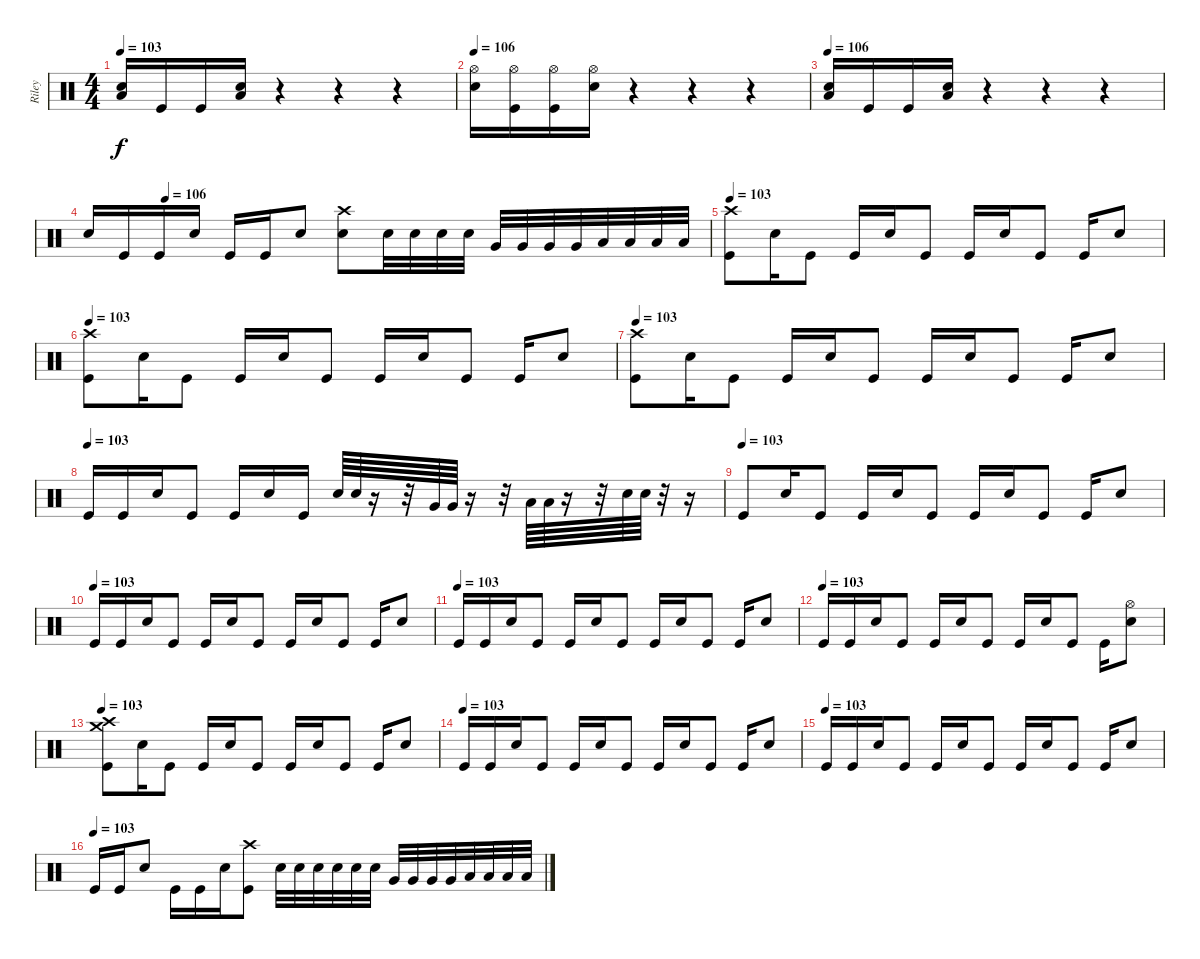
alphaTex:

\track ("Riley" "Riley") {instrument percussion}
\staff {score}
\articulation defaults
\ts (4 4)
\tempo 103
\tempo 106
\tempo 103
\clef neutral
\ks c
("Electric Snare (hit)" "Low Floor Tom (hit)").16{dy f} "Kick (hit)".16 "Kick (hit)".16 ("Electric Snare (hit)" "Low Floor Tom (hit)").16 r.4 r.4 r.4 |
\tempo 106
("Electric Snare (hit)" "Hi-Hat (open)").16 ("Hi-Hat (open)" "Kick (hit)").16 ("Hi-Hat (open)" "Kick (hit)").16 ("Electric Snare (hit)" "Hi-Hat (open)").16 r.4 r.4 r.4 |
\tempo 106
("Electric Snare (hit)" "Low Floor Tom (hit)").16 "Kick (hit)".16 "Kick (hit)".16 ("Electric Snare (hit)" "Low Floor Tom (hit)").16 r.4 r.4 r.4 |
\tempo (106 0.125)
"Electric Snare (hit)".16 "Kick (hit)".16 "Kick (hit)".16 "Electric Snare (hit)".16 "Kick (hit)".16 "Kick (hit)".16 "Electric Snare (hit)".8 ("Crash high (hit)" "Electric Snare (hit)").8 "Electric Snare (hit)".32 "Electric Snare (hit)".32 "Electric Snare (hit)".32 "Electric Snare (hit)".32 "Very Low Tom (hit)".32 "Very Low Tom (hit)".32 "Very Low Tom (hit)".32 "Very Low Tom (hit)".32 "Low Floor Tom (hit)".32 "Low Floor Tom (hit)".32 "Low Floor Tom (hit)".32 "Low Floor Tom (hit)".32 |
\tempo 103
("Crash high (hit)" "Kick (hit)").8 "Electric Snare (hit)".16 "Kick (hit)".8 "Kick (hit)".16 "Electric Snare (hit)".16 "Kick (hit)".8 "Kick (hit)".16 "Electric Snare (hit)".16 "Kick (hit)".8 "Kick (hit)".16 "Electric Snare (hit)".8 |
\tempo 103
("Crash high (hit)" "Kick (hit)").8 "Electric Snare (hit)".16 "Kick (hit)".8 "Kick (hit)".16 "Electric Snare (hit)".16 "Kick (hit)".8 "Kick (hit)".16 "Electric Snare (hit)".16 "Kick (hit)".8 "Kick (hit)".16 "Electric Snare (hit)".8 |
\tempo 103
("Crash high (hit)" "Kick (hit)").8 "Electric Snare (hit)".16 "Kick (hit)".8 "Kick (hit)".16 "Electric Snare (hit)".16 "Kick (hit)".8 "Kick (hit)".16 "Electric Snare (hit)".16 "Kick (hit)".8 "Kick (hit)".16 "Electric Snare (hit)".8 |
\tempo (103)
"Kick (hit)".16 "Kick (hit)".16 "Electric Snare (hit)".16 "Kick (hit)".8 "Kick (hit)".16 "Electric Snare (hit)".16 "Kick (hit)".16 "Electric Snare (hit)".64 "Electric Snare (hit)".64 r.16 r.32 "Very Low Tom (hit)".64 "Very Low Tom (hit)".64 r.16 r.32 "Low Floor Tom (hit)".64 "Low Floor Tom (hit)".64 r.16 r.32 "Electric Snare (hit)".64 "Electric Snare (hit)".64 r.32 r.16 |
\tempo (103)
"Kick (hit)".8 "Electric Snare (hit)".16 "Kick (hit)".8 "Kick (hit)".16 "Electric Snare (hit)".16 "Kick (hit)".8 "Kick (hit)".16 "Electric Snare (hit)".16 "Kick (hit)".8 "Kick (hit)".16 "Electric Snare (hit)".8 |
\tempo (103)
"Kick (hit)".16 "Kick (hit)".16 "Electric Snare (hit)".16 "Kick (hit)".8 "Kick (hit)".16 "Electric Snare (hit)".16 "Kick (hit)".8 "Kick (hit)".16 "Electric Snare (hit)".16 "Kick (hit)".8 "Kick (hit)".16 "Electric Snare (hit)".8 |
\tempo (103)
"Kick (hit)".16 "Kick (hit)".16 "Electric Snare (hit)".16 "Kick (hit)".8 "Kick (hit)".16 "Electric Snare (hit)".16 "Kick (hit)".8 "Kick (hit)".16 "Electric Snare (hit)".16 "Kick (hit)".8 "Kick (hit)".16 "Electric Snare (hit)".8 |
\tempo (103)
"Kick (hit)".16 "Kick (hit)".16 "Electric Snare (hit)".16 "Kick (hit)".8 "Kick (hit)".16 "Electric Snare (hit)".16 "Kick (hit)".8 "Kick (hit)".16 "Electric Snare (hit)".16 "Kick (hit)".8 "Kick (hit)".16 ("Electric Snare (hit)" "Hi-Hat (open)").8 |
\tempo 103
("Crash high (hit)" "Crash medium (hit)" "Kick (hit)").8 "Electric Snare (hit)".16 "Kick (hit)".8 "Kick (hit)".16 "Electric Snare (hit)".16 "Kick (hit)".8 "Kick (hit)".16 "Electric Snare (hit)".16 "Kick (hit)".8 "Kick (hit)".16 "Electric Snare (hit)".8 |
\tempo (103)
"Kick (hit)".16 "Kick (hit)".16 "Electric Snare (hit)".16 "Kick (hit)".8 "Kick (hit)".16 "Electric Snare (hit)".16 "Kick (hit)".8 "Kick (hit)".16 "Electric Snare (hit)".16 "Kick (hit)".8 "Kick (hit)".16 "Electric Snare (hit)".8 |
\tempo (103)
"Kick (hit)".16 "Kick (hit)".16 "Electric Snare (hit)".16 "Kick (hit)".8 "Kick (hit)".16 "Electric Snare (hit)".16 "Kick (hit)".8 "Kick (hit)".16 "Electric Snare (hit)".16 "Kick (hit)".8 "Kick (hit)".16 "Electric Snare (hit)".8 |
\tempo (103)
"Kick (hit)".16 "Kick (hit)".16 "Electric Snare (hit)".8 "Kick (hit)".16 "Kick (hit)".16 "Electric Snare (hit)".16 ("Crash high (hit)" "Kick (hit)").8 "Electric Snare (hit)".32 "Electric Snare (hit)".32 "Electric Snare (hit)".32 "Electric Snare (hit)".32 "Electric Snare (hit)".32 "Electric Snare (hit)".32 "Very Low Tom (hit)".32 "Very Low Tom (hit)".32 "Very Low Tom (hit)".32 "Very Low Tom (hit)".32 "Low Floor Tom (hit)".32 "Low Floor Tom (hit)".32 "Low Floor Tom (hit)".32 "Low Floor Tom (hit)".32
